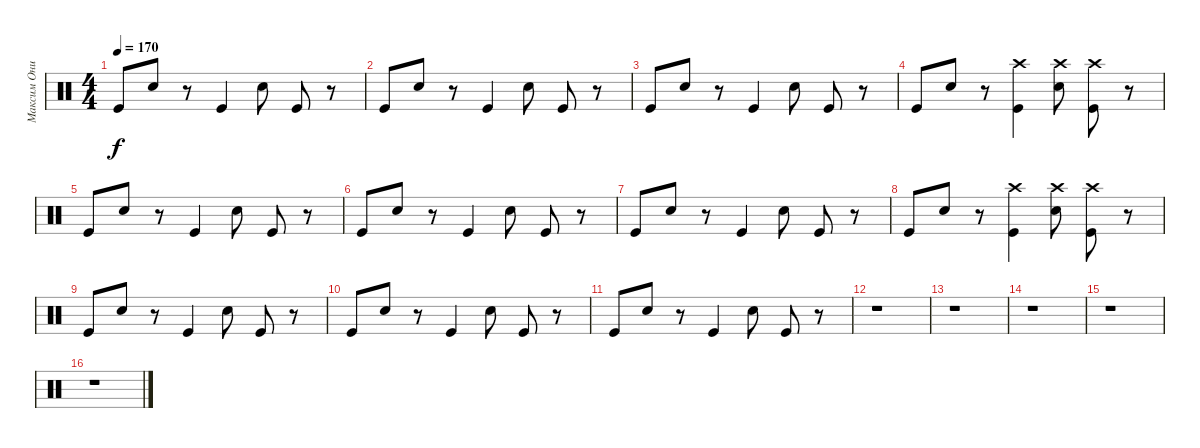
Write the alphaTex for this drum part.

\track ("Максим Онищенко" "Максим Они") {instrument percussion}
\staff {score}
\articulation defaults
\ts (4 4)
\tempo 170
\clef neutral
\ks c "Kick (hit)".8{dy f} "Snare (hit) 2".8
r.8 "Kick (hit)".4 "Snare (hit) 2".8 "Kick (hit)".8 r.8 |
"Kick (hit)".8 "Snare (hit) 2".8 r.8 "Kick (hit)".4 "Snare (hit) 2".8 "Kick (hit)".8 r.8 |
"Kick (hit)".8 "Snare (hit) 2".8 r.8 "Kick (hit)".4 "Snare (hit) 2".8 "Kick (hit)".8 r.8 |
"Kick (hit)".8 "Snare (hit) 2".8 r.8 ("Kick (hit)" "Crash high (hit)").4 ("Snare (hit) 2" "Crash high (hit)").8 ("Kick (hit)" "Crash high (hit)").8 r.8 |
"Kick (hit)".8 "Snare (hit) 2".8 r.8 "Kick (hit)".4 "Snare (hit) 2".8 "Kick (hit)".8 r.8 |
"Kick (hit)".8 "Snare (hit) 2".8 r.8 "Kick (hit)".4 "Snare (hit) 2".8 "Kick (hit)".8 r.8 |
"Kick (hit)".8 "Snare (hit) 2".8 r.8 "Kick (hit)".4 "Snare (hit) 2".8 "Kick (hit)".8 r.8 |
"Kick (hit)".8 "Snare (hit) 2".8 r.8 ("Kick (hit)" "Crash high (hit)").4 ("Snare (hit) 2" "Crash high (hit)").8 ("Kick (hit)" "Crash high (hit)").8 r.8 |
"Kick (hit)".8 "Snare (hit) 2".8 r.8 "Kick (hit)".4 "Snare (hit) 2".8 "Kick (hit)".8 r.8 |
"Kick (hit)".8 "Snare (hit) 2".8 r.8 "Kick (hit)".4 "Snare (hit) 2".8 "Kick (hit)".8 r.8 |
"Kick (hit)".8 "Snare (hit) 2".8 r.8 "Kick (hit)".4 "Snare (hit) 2".8 "Kick (hit)".8 r.8 |
r.1 |
r.1 |
r.1 |
r.1 |
r.1
